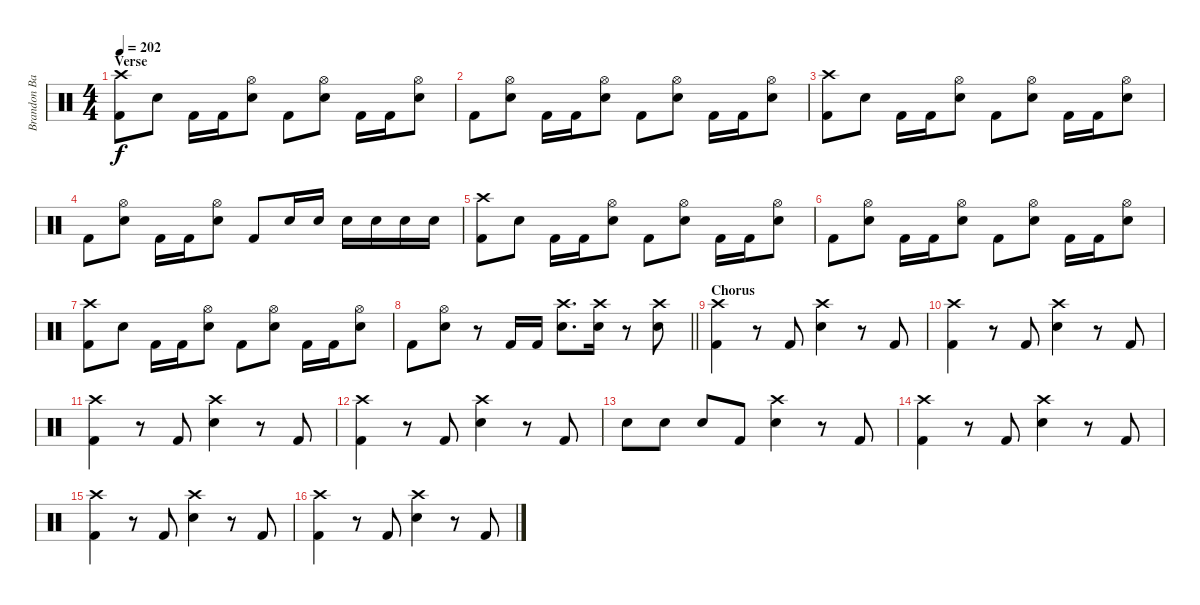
\track ("Brandon Barnes - Drums" "Brandon Ba") {instrument percussion}
\staff {score}
\articulation defaults
\ts (4 4)
\section ("" "Verse")
\tempo 202
\clef neutral
\ks c
("Crash high (hit)" "Kick (hit) 2").8{dy f} "Snare (hit) 2".8 "Kick (hit) 2".16 "Kick (hit) 2".16 ("Snare (hit) 2" "Hi-Hat (open)").8 "Kick (hit) 2".8 ("Snare (hit) 2" "Hi-Hat (open)").8 "Kick (hit) 2".16 "Kick (hit) 2".16 ("Snare (hit) 2" "Hi-Hat (open)").8 |
"Kick (hit) 2".8 ("Snare (hit) 2" "Hi-Hat (open)").8 "Kick (hit) 2".16 "Kick (hit) 2".16 ("Snare (hit) 2" "Hi-Hat (open)").8 "Kick (hit) 2".8 ("Snare (hit) 2" "Hi-Hat (open)").8 "Kick (hit) 2".16 "Kick (hit) 2".16 ("Snare (hit) 2" "Hi-Hat (open)").8 |
("Kick (hit) 2" "Crash high (hit)").8 "Snare (hit) 2".8 "Kick (hit) 2".16 "Kick (hit) 2".16 ("Snare (hit) 2" "Hi-Hat (open)").8 "Kick (hit) 2".8 ("Snare (hit) 2" "Hi-Hat (open)").8 "Kick (hit) 2".16 "Kick (hit) 2".16 ("Snare (hit) 2" "Hi-Hat (open)").8 |
"Kick (hit) 2".8 ("Snare (hit) 2" "Hi-Hat (open)").8 "Kick (hit) 2".16 "Kick (hit) 2".16 ("Snare (hit) 2" "Hi-Hat (open)").8 "Kick (hit) 2".8 "Snare (hit) 2".16 "Snare (hit) 2".16 "Snare (hit) 2".16 "Snare (hit) 2".16 "Snare (hit) 2".16 "Snare (hit) 2".16 |
("Kick (hit) 2" "Crash high (hit)").8 "Snare (hit) 2".8 "Kick (hit) 2".16 "Kick (hit) 2".16 ("Snare (hit) 2" "Hi-Hat (open)").8 "Kick (hit) 2".8 ("Snare (hit) 2" "Hi-Hat (open)").8 "Kick (hit) 2".16 "Kick (hit) 2".16 ("Snare (hit) 2" "Hi-Hat (open)").8 |
"Kick (hit) 2".8 ("Snare (hit) 2" "Hi-Hat (open)").8 "Kick (hit) 2".16 "Kick (hit) 2".16 ("Snare (hit) 2" "Hi-Hat (open)").8 "Kick (hit) 2".8 ("Snare (hit) 2" "Hi-Hat (open)").8 "Kick (hit) 2".16 "Kick (hit) 2".16 ("Snare (hit) 2" "Hi-Hat (open)").8 |
("Kick (hit) 2" "Crash high (hit)").8 "Snare (hit) 2".8 "Kick (hit) 2".16 "Kick (hit) 2".16 ("Snare (hit) 2" "Hi-Hat (open)").8 "Kick (hit) 2".8 ("Snare (hit) 2" "Hi-Hat (open)").8 "Kick (hit) 2".16 "Kick (hit) 2".16 ("Snare (hit) 2" "Hi-Hat (open)").8 |
\barLineRight lightlight "Kick (hit) 2".8
("Snare (hit) 2" "Hi-Hat (open)").8 r.8 "Kick (hit) 2".16 "Kick (hit) 2".16 ("Snare (hit) 2" "Crash high (hit)").8{d} ("Snare (hit) 2" "Crash high (hit)").16 r.8 ("Snare (hit) 2" "Crash high (hit)").8 |
\section ("" "Chorus")
("Kick (hit) 2" "Crash high (hit)").4 r.8 "Kick (hit) 2".8 ("Snare (hit) 2" "Crash high (hit)").4 r.8 "Kick (hit) 2".8 |
("Kick (hit) 2" "Crash high (hit)").4 r.8 "Kick (hit) 2".8 ("Snare (hit) 2" "Crash high (hit)").4 r.8 "Kick (hit) 2".8 |
("Kick (hit) 2" "Crash high (hit)").4 r.8 "Kick (hit) 2".8 ("Snare (hit) 2" "Crash high (hit)").4 r.8 "Kick (hit) 2".8 |
("Kick (hit) 2" "Crash high (hit)").4 r.8 "Kick (hit) 2".8 ("Snare (hit) 2" "Crash high (hit)").4 r.8 "Kick (hit) 2".8 |
"Snare (hit) 2".8 "Snare (hit) 2".8 "Snare (hit) 2".8 "Kick (hit) 2".8 ("Snare (hit) 2" "Crash high (hit)").4 r.8 "Kick (hit) 2".8 |
("Kick (hit) 2" "Crash high (hit)").4 r.8 "Kick (hit) 2".8 ("Snare (hit) 2" "Crash high (hit)").4 r.8 "Kick (hit) 2".8 |
("Kick (hit) 2" "Crash high (hit)").4 r.8 "Kick (hit) 2".8 ("Snare (hit) 2" "Crash high (hit)").4 r.8 "Kick (hit) 2".8 |
("Kick (hit) 2" "Crash high (hit)").4 r.8 "Kick (hit) 2".8 ("Snare (hit) 2" "Crash high (hit)").4 r.8 "Kick (hit) 2".8
